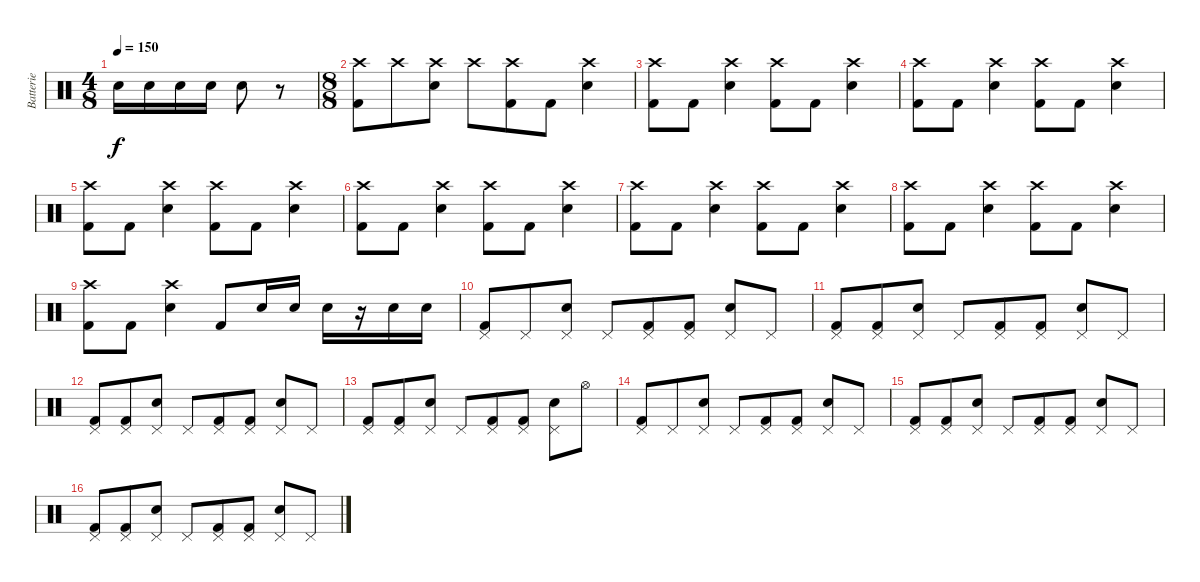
\track ("Batterie" "Batterie") {instrument percussion}
\staff {score}
\articulation defaults
\ts (4 8)
\tempo 150
\clef neutral
\ks c "Electric Snare (hit)".16{dy f} "Electric Snare (hit)".16 "Snare (hit) 2".16 "Snare (hit) 2".16 "Snare (hit) 2".8
r.8 |
\ts (8 8)
("Crash high (hit)" "Kick (hit) 2").8 "Crash high (hit)".8 ("Crash high (hit)" "Snare (hit) 2").8 "Crash high (hit)".8 ("Crash high (hit)" "Kick (hit) 2").8 "Kick (hit) 2".8 ("Crash high (hit)" "Snare (hit) 2").4 |
("Crash high (hit)" "Kick (hit) 2").8 "Kick (hit) 2".8 ("Crash high (hit)" "Snare (hit) 2").4 ("Crash high (hit)" "Kick (hit) 2").8 "Kick (hit) 2".8 ("Crash high (hit)" "Snare (hit) 2").4 |
("Crash high (hit)" "Kick (hit) 2").8 "Kick (hit) 2".8 ("Crash high (hit)" "Snare (hit) 2").4 ("Crash high (hit)" "Kick (hit) 2").8 "Kick (hit) 2".8 ("Crash high (hit)" "Snare (hit) 2").4 |
("Crash high (hit)" "Kick (hit) 2").8 "Kick (hit) 2".8 ("Crash high (hit)" "Snare (hit) 2").4 ("Crash high (hit)" "Kick (hit) 2").8 "Kick (hit) 2".8 ("Crash high (hit)" "Snare (hit) 2").4 |
("Crash high (hit)" "Kick (hit) 2").8 "Kick (hit) 2".8 ("Crash high (hit)" "Snare (hit) 2").4 ("Crash high (hit)" "Kick (hit) 2").8 "Kick (hit) 2".8 ("Crash high (hit)" "Snare (hit) 2").4 |
("Crash high (hit)" "Kick (hit) 2").8 "Kick (hit) 2".8 ("Crash high (hit)" "Snare (hit) 2").4 ("Crash high (hit)" "Kick (hit) 2").8 "Kick (hit) 2".8 ("Crash high (hit)" "Snare (hit) 2").4 |
("Crash high (hit)" "Kick (hit) 2").8 "Kick (hit) 2".8 ("Crash high (hit)" "Snare (hit) 2").4 ("Crash high (hit)" "Kick (hit) 2").8 "Kick (hit) 2".8 ("Crash high (hit)" "Snare (hit) 2").4 |
("Crash high (hit)" "Kick (hit) 2").8 "Kick (hit) 2".8 ("Crash high (hit)" "Snare (hit) 2").4 "Kick (hit) 2".8 "Snare (hit) 2".16 "Snare (hit) 2".16 "Snare (hit) 2".16 r.16 "Snare (hit) 2".16 "Snare (hit) 2".16 |
("Pedal Hi-Hat (hit)" "Kick (hit) 2").8 "Pedal Hi-Hat (hit)".8 ("Pedal Hi-Hat (hit)" "Snare (hit) 2").8 "Pedal Hi-Hat (hit)".8 ("Pedal Hi-Hat (hit)" "Kick (hit) 2").8 ("Pedal Hi-Hat (hit)" "Kick (hit) 2").8 ("Pedal Hi-Hat (hit)" "Snare (hit) 2").8 "Pedal Hi-Hat (hit)".8 |
("Pedal Hi-Hat (hit)" "Kick (hit) 2").8 ("Pedal Hi-Hat (hit)" "Kick (hit) 2").8 ("Pedal Hi-Hat (hit)" "Snare (hit) 2").8 "Pedal Hi-Hat (hit)".8 ("Pedal Hi-Hat (hit)" "Kick (hit) 2").8 ("Pedal Hi-Hat (hit)" "Kick (hit) 2").8 ("Pedal Hi-Hat (hit)" "Snare (hit) 2").8 "Pedal Hi-Hat (hit)".8 |
("Pedal Hi-Hat (hit)" "Kick (hit) 2").8 ("Pedal Hi-Hat (hit)" "Kick (hit) 2").8 ("Pedal Hi-Hat (hit)" "Snare (hit) 2").8 "Pedal Hi-Hat (hit)".8 ("Pedal Hi-Hat (hit)" "Kick (hit) 2").8 ("Pedal Hi-Hat (hit)" "Kick (hit) 2").8 ("Pedal Hi-Hat (hit)" "Snare (hit) 2").8 "Pedal Hi-Hat (hit)".8 |
("Pedal Hi-Hat (hit)" "Kick (hit) 2").8 ("Pedal Hi-Hat (hit)" "Kick (hit) 2").8 ("Pedal Hi-Hat (hit)" "Snare (hit) 2").8 "Pedal Hi-Hat (hit)".8 ("Pedal Hi-Hat (hit)" "Kick (hit) 2").8 ("Pedal Hi-Hat (hit)" "Kick (hit) 2").8 ("Pedal Hi-Hat (hit)" "Snare (hit) 2").8 "Hi-Hat (open)".8 |
("Pedal Hi-Hat (hit)" "Kick (hit) 2").8 "Pedal Hi-Hat (hit)".8 ("Pedal Hi-Hat (hit)" "Snare (hit) 2").8 "Pedal Hi-Hat (hit)".8 ("Pedal Hi-Hat (hit)" "Kick (hit) 2").8 ("Pedal Hi-Hat (hit)" "Kick (hit) 2").8 ("Pedal Hi-Hat (hit)" "Snare (hit) 2").8 "Pedal Hi-Hat (hit)".8 |
("Pedal Hi-Hat (hit)" "Kick (hit) 2").8 ("Pedal Hi-Hat (hit)" "Kick (hit) 2").8 ("Pedal Hi-Hat (hit)" "Snare (hit) 2").8 "Pedal Hi-Hat (hit)".8 ("Pedal Hi-Hat (hit)" "Kick (hit) 2").8 ("Pedal Hi-Hat (hit)" "Kick (hit) 2").8 ("Pedal Hi-Hat (hit)" "Snare (hit) 2").8 "Pedal Hi-Hat (hit)".8 |
("Pedal Hi-Hat (hit)" "Kick (hit) 2").8 ("Pedal Hi-Hat (hit)" "Kick (hit) 2").8 ("Pedal Hi-Hat (hit)" "Snare (hit) 2").8 "Pedal Hi-Hat (hit)".8 ("Pedal Hi-Hat (hit)" "Kick (hit) 2").8 ("Pedal Hi-Hat (hit)" "Kick (hit) 2").8 ("Pedal Hi-Hat (hit)" "Snare (hit) 2").8 "Pedal Hi-Hat (hit)".8
